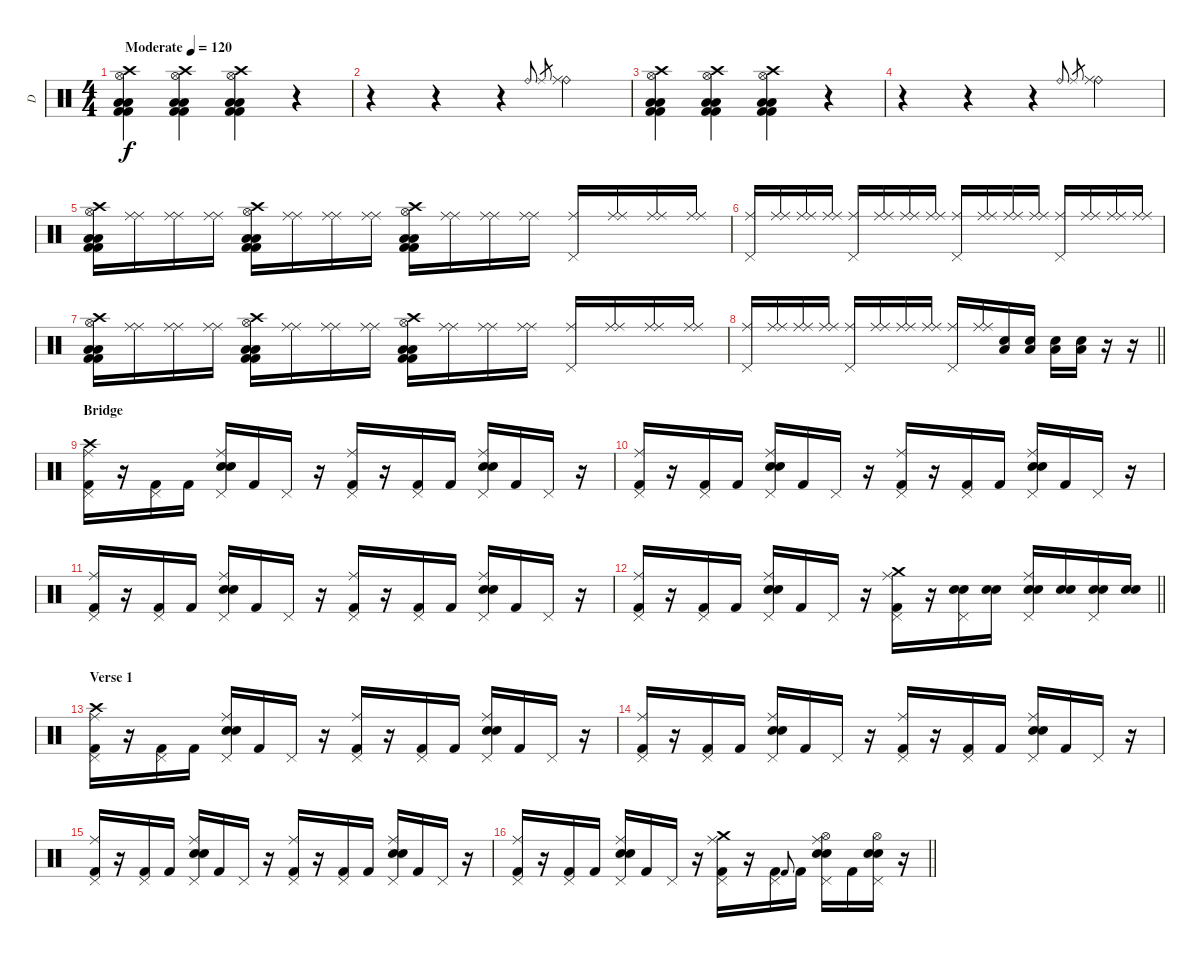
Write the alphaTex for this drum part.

\track ("D" "D") {instrument percussion}
\staff {score}
\articulation defaults
\ts (4 4)
\tempo (120 "Moderate")
\clef neutral
\ks c
("Crash high (hit)" "Hi-Hat (open)" "Low Floor Tom (hit)" "Low Tom (hit)" "Kick (hit) 2" "Kick (hit) 2").4{dy f} ("Crash high (hit)" "Hi-Hat (open)" "Low Floor Tom (hit)" "Low Tom (hit)" "Kick (hit) 2" "Kick (hit) 2").4 ("Crash high (hit)" "Hi-Hat (open)" "Low Floor Tom (hit)" "Low Tom (hit)" "Kick (hit) 2" "Kick (hit) 2").4 r.4 |
r.4 r.4 r.4 "Ride (bell)".16{gr onbeat} "Ride (middle)".16{gr} ("Ride (bell)" "Ride (middle)").4 |
("Crash high (hit)" "Hi-Hat (open)" "Low Floor Tom (hit)" "Low Tom (hit)" "Kick (hit) 2" "Kick (hit) 2").4 ("Crash high (hit)" "Hi-Hat (open)" "Low Floor Tom (hit)" "Low Tom (hit)" "Kick (hit) 2" "Kick (hit) 2").4 ("Crash high (hit)" "Hi-Hat (open)" "Low Floor Tom (hit)" "Low Tom (hit)" "Kick (hit) 2" "Kick (hit) 2").4 r.4 |
r.4 r.4 r.4 "Ride (bell)".16{gr onbeat} "Ride (middle)".16{gr} ("Ride (bell)" "Ride (middle)").4 |
("Crash high (hit)" "Hi-Hat (open)" "Low Floor Tom (hit)" "Low Tom (hit)" "Kick (hit) 2" "Kick (hit) 2").16 ("Ride (middle)" "Ride (middle)").16 ("Ride (middle)" "Ride (middle)").16 ("Ride (middle)" "Ride (middle)").16 ("Crash high (hit)" "Hi-Hat (open)" "Low Floor Tom (hit)" "Low Tom (hit)" "Kick (hit) 2" "Kick (hit) 2").16 ("Ride (middle)" "Ride (middle)").16 ("Ride (middle)" "Ride (middle)").16 ("Ride (middle)" "Ride (middle)").16 ("Crash high (hit)" "Hi-Hat (open)" "Low Floor Tom (hit)" "Low Tom (hit)" "Kick (hit) 2" "Kick (hit) 2").16 ("Ride (middle)" "Ride (middle)").16 ("Ride (middle)" "Ride (middle)").16 ("Ride (middle)" "Ride (middle)").16 ("Pedal Hi-Hat (hit)" "Ride (middle)").16 ("Ride (middle)" "Ride (middle)").16 ("Ride (middle)" "Ride (middle)").16 ("Ride (middle)" "Ride (middle)").16 |
("Pedal Hi-Hat (hit)" "Ride (middle)").16 ("Ride (middle)" "Ride (middle)").16 ("Ride (middle)" "Ride (middle)").16 ("Ride (middle)" "Ride (middle)").16 ("Pedal Hi-Hat (hit)" "Ride (middle)").16 ("Ride (middle)" "Ride (middle)").16 ("Ride (middle)" "Ride (middle)").16 ("Ride (middle)" "Ride (middle)").16 ("Pedal Hi-Hat (hit)" "Ride (middle)").16 ("Ride (middle)" "Ride (middle)").16 ("Ride (middle)" "Ride (middle)").16 ("Ride (middle)" "Ride (middle)").16 ("Pedal Hi-Hat (hit)" "Ride (middle)").16 ("Ride (middle)" "Ride (middle)").16 ("Ride (middle)" "Ride (middle)").16 ("Ride (middle)" "Ride (middle)").16 |
("Crash high (hit)" "Hi-Hat (open)" "Low Floor Tom (hit)" "Low Tom (hit)" "Kick (hit) 2" "Kick (hit) 2").16 ("Ride (middle)" "Ride (middle)").16 ("Ride (middle)" "Ride (middle)").16 ("Ride (middle)" "Ride (middle)").16 ("Crash high (hit)" "Hi-Hat (open)" "Low Floor Tom (hit)" "Low Tom (hit)" "Kick (hit) 2" "Kick (hit) 2").16 ("Ride (middle)" "Ride (middle)").16 ("Ride (middle)" "Ride (middle)").16 ("Ride (middle)" "Ride (middle)").16 ("Crash high (hit)" "Hi-Hat (open)" "Low Floor Tom (hit)" "Low Tom (hit)" "Kick (hit) 2" "Kick (hit) 2").16 ("Ride (middle)" "Ride (middle)").16 ("Ride (middle)" "Ride (middle)").16 ("Ride (middle)" "Ride (middle)").16 ("Pedal Hi-Hat (hit)" "Ride (middle)").16 ("Ride (middle)" "Ride (middle)").16 ("Ride (middle)" "Ride (middle)").16 ("Ride (middle)" "Ride (middle)").16 |
\barLineRight lightlight
("Pedal Hi-Hat (hit)" "Ride (middle)").16 ("Ride (middle)" "Ride (middle)").16 ("Ride (middle)" "Ride (middle)").16 ("Ride (middle)" "Ride (middle)").16 ("Pedal Hi-Hat (hit)" "Ride (middle)").16 ("Ride (middle)" "Ride (middle)").16 ("Ride (middle)" "Ride (middle)").16 ("Ride (middle)" "Ride (middle)").16 ("Pedal Hi-Hat (hit)" "Ride (middle)").16 ("Ride (middle)" "Ride (middle)").16 ("Electric Snare (hit)" "Low Tom (hit)").16 ("Electric Snare (hit)" "Low Tom (hit)").16 ("Electric Snare (hit)" "Low Tom (hit)").16 ("Electric Snare (hit)" "Low Tom (hit)").16 r.16 r.16 |
\section ("" "Bridge")
("Crash high (hit)" "Kick (hit) 2" "Pedal Hi-Hat (hit)" "Ride (middle)").16 r.16 ("Kick (hit) 2" "Pedal Hi-Hat (hit)").16 "Kick (hit) 2".16 ("Electric Snare (hit)" "Electric Snare (hit)" "Pedal Hi-Hat (hit)" "Ride (middle)").16 "Kick (hit) 2".16 "Pedal Hi-Hat (hit)".16 r.16 ("Kick (hit) 2" "Pedal Hi-Hat (hit)" "Ride (middle)").16 r.16 ("Kick (hit) 2" "Pedal Hi-Hat (hit)").16 "Kick (hit) 2".16 ("Electric Snare (hit)" "Electric Snare (hit)" "Pedal Hi-Hat (hit)" "Ride (middle)").16 "Kick (hit) 2".16 "Pedal Hi-Hat (hit)".16 r.16 |
("Kick (hit) 2" "Pedal Hi-Hat (hit)" "Ride (middle)").16 r.16 ("Kick (hit) 2" "Pedal Hi-Hat (hit)").16 "Kick (hit) 2".16 ("Electric Snare (hit)" "Electric Snare (hit)" "Pedal Hi-Hat (hit)" "Ride (middle)").16 "Kick (hit) 2".16 "Pedal Hi-Hat (hit)".16 r.16 ("Kick (hit) 2" "Pedal Hi-Hat (hit)" "Ride (middle)").16 r.16 ("Kick (hit) 2" "Pedal Hi-Hat (hit)").16 "Kick (hit) 2".16 ("Electric Snare (hit)" "Electric Snare (hit)" "Pedal Hi-Hat (hit)" "Ride (middle)").16 "Kick (hit) 2".16 "Pedal Hi-Hat (hit)".16 r.16 |
("Kick (hit) 2" "Pedal Hi-Hat (hit)" "Ride (middle)").16 r.16 ("Kick (hit) 2" "Pedal Hi-Hat (hit)").16 "Kick (hit) 2".16 ("Electric Snare (hit)" "Electric Snare (hit)" "Pedal Hi-Hat (hit)" "Ride (middle)").16 "Kick (hit) 2".16 "Pedal Hi-Hat (hit)".16 r.16 ("Kick (hit) 2" "Pedal Hi-Hat (hit)" "Ride (middle)").16 r.16 ("Kick (hit) 2" "Pedal Hi-Hat (hit)").16 "Kick (hit) 2".16 ("Electric Snare (hit)" "Electric Snare (hit)" "Pedal Hi-Hat (hit)" "Ride (middle)").16 "Kick (hit) 2".16 "Pedal Hi-Hat (hit)".16 r.16 |
\barLineRight lightlight
("Kick (hit) 2" "Pedal Hi-Hat (hit)" "Ride (middle)").16 r.16 ("Kick (hit) 2" "Pedal Hi-Hat (hit)").16 "Kick (hit) 2".16 ("Electric Snare (hit)" "Electric Snare (hit)" "Pedal Hi-Hat (hit)" "Ride (middle)").16 "Kick (hit) 2".16 "Pedal Hi-Hat (hit)".16 r.16 ("Crash medium (hit)" "Kick (hit) 2" "Pedal Hi-Hat (hit)" "Ride (middle)").16 r.16 ("Electric Snare (hit)" "Electric Snare (hit)" "Pedal Hi-Hat (hit)").16 ("Electric Snare (hit)" "Electric Snare (hit)").16 ("Electric Snare (hit)" "Electric Snare (hit)" "Pedal Hi-Hat (hit)" "Ride (middle)").16 ("Electric Snare (hit)" "Electric Snare (hit)").16 ("Electric Snare (hit)" "Electric Snare (hit)" "Pedal Hi-Hat (hit)").16 ("Electric Snare (hit)" "Electric Snare (hit)").16 |
\section ("" "Verse 1")
("Crash high (hit)" "Kick (hit) 2" "Pedal Hi-Hat (hit)" "Ride (middle)").16 r.16 ("Kick (hit) 2" "Pedal Hi-Hat (hit)").16 "Kick (hit) 2".16 ("Electric Snare (hit)" "Electric Snare (hit)" "Pedal Hi-Hat (hit)" "Ride (middle)").16 "Kick (hit) 2".16 "Pedal Hi-Hat (hit)".16 r.16 ("Kick (hit) 2" "Pedal Hi-Hat (hit)" "Ride (middle)").16 r.16 ("Kick (hit) 2" "Pedal Hi-Hat (hit)").16 "Kick (hit) 2".16 ("Electric Snare (hit)" "Electric Snare (hit)" "Pedal Hi-Hat (hit)" "Ride (middle)").16 "Kick (hit) 2".16 "Pedal Hi-Hat (hit)".16 r.16 |
("Kick (hit) 2" "Pedal Hi-Hat (hit)" "Ride (middle)").16 r.16 ("Kick (hit) 2" "Pedal Hi-Hat (hit)").16 "Kick (hit) 2".16 ("Electric Snare (hit)" "Electric Snare (hit)" "Pedal Hi-Hat (hit)" "Ride (middle)").16 "Kick (hit) 2".16 "Pedal Hi-Hat (hit)".16 r.16 ("Kick (hit) 2" "Pedal Hi-Hat (hit)" "Ride (middle)").16 r.16 ("Kick (hit) 2" "Pedal Hi-Hat (hit)").16 "Kick (hit) 2".16 ("Electric Snare (hit)" "Electric Snare (hit)" "Pedal Hi-Hat (hit)" "Ride (middle)").16 "Kick (hit) 2".16 "Pedal Hi-Hat (hit)".16 r.16 |
("Kick (hit) 2" "Pedal Hi-Hat (hit)" "Ride (middle)").16 r.16 ("Kick (hit) 2" "Pedal Hi-Hat (hit)").16 "Kick (hit) 2".16 ("Electric Snare (hit)" "Electric Snare (hit)" "Pedal Hi-Hat (hit)" "Ride (middle)").16 "Kick (hit) 2".16 "Pedal Hi-Hat (hit)".16 r.16 ("Kick (hit) 2" "Pedal Hi-Hat (hit)" "Ride (middle)").16 r.16 ("Kick (hit) 2" "Pedal Hi-Hat (hit)").16 "Kick (hit) 2".16 ("Electric Snare (hit)" "Electric Snare (hit)" "Pedal Hi-Hat (hit)" "Ride (middle)").16 "Kick (hit) 2".16 "Pedal Hi-Hat (hit)".16 r.16 |
\barLineRight lightlight
("Kick (hit) 2" "Pedal Hi-Hat (hit)" "Ride (middle)").16 r.16 ("Kick (hit) 2" "Pedal Hi-Hat (hit)").16 "Kick (hit) 2".16 ("Electric Snare (hit)" "Electric Snare (hit)" "Pedal Hi-Hat (hit)" "Ride (middle)").16 "Kick (hit) 2".16 "Pedal Hi-Hat (hit)".16 r.16 ("Crash medium (hit)" "Kick (hit) 2" "Pedal Hi-Hat (hit)" "Ride (middle)").16 r.16 ("Kick (hit) 2" "Pedal Hi-Hat (hit)").16 "Kick (hit) 2".8{gr onbeat} "Kick (hit) 2".16 ("Hi-Hat (open)" "Electric Snare (hit)" "Electric Snare (hit)" "Pedal Hi-Hat (hit)" "Ride (middle)").16 "Kick (hit) 2".16 ("Hi-Hat (open)" "Electric Snare (hit)" "Electric Snare (hit)" "Pedal Hi-Hat (hit)").16 r.16
